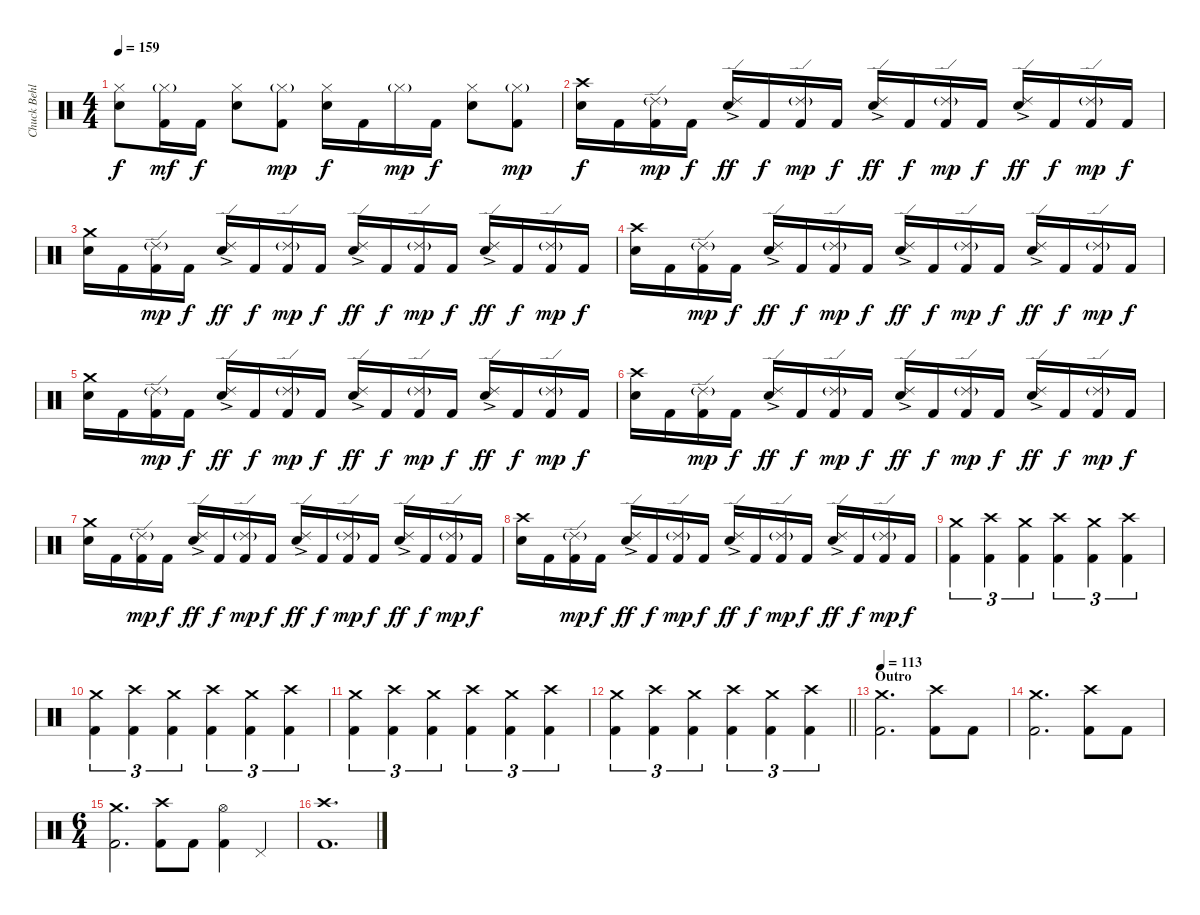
\track ("Chuck Behler" "Chuck Behl") {instrument percussion}
\staff {score}
\articulation defaults
\ts (4 4)
\tempo 159
\clef neutral
\ks c
("Hi-Hat (closed)" "Snare (hit) 2").8{dy f} ("Hi-Hat (closed)"{g} "Kick (hit) 2").16{dy mf} "Kick (hit) 2".16{dy f} ("Hi-Hat (closed)" "Snare (hit) 2").8 ("Hi-Hat (closed)"{g} "Kick (hit) 2").8{dy mp} ("Hi-Hat (closed)" "Snare (hit) 2").16{dy f} "Kick (hit) 2".16 "Hi-Hat (closed)"{g}.16{dy mp} "Kick (hit) 2".16{dy f} ("Hi-Hat (closed)" "Snare (hit) 2").8 ("Hi-Hat (closed)"{g} "Kick (hit) 2").8{dy mp} |
("Crash high (hit)" "Snare (hit) 2").16{dy f} "Kick (hit) 2".16 ("Ride (edge) 2"{g} "Kick (hit) 2").16{dy mp} "Kick (hit) 2".16{dy f} ("Ride (edge) 2"{ac} "Snare (hit) 2").16{dy ff} "Kick (hit) 2".16{dy f} ("Ride (edge) 2"{g} "Kick (hit) 2").16{dy mp} "Kick (hit) 2".16{dy f} ("Ride (edge) 2"{ac} "Snare (hit) 2").16{dy ff} "Kick (hit) 2".16{dy f} ("Ride (edge) 2"{g} "Kick (hit) 2").16{dy mp} "Kick (hit) 2".16{dy f} ("Ride (edge) 2"{ac} "Snare (hit) 2").16{dy ff} "Kick (hit) 2".16{dy f} ("Ride (edge) 2"{g} "Kick (hit) 2").16{dy mp} "Kick (hit) 2".16{dy f} |
("Crash medium (hit)" "Snare (hit) 2").16 "Kick (hit) 2".16 ("Ride (edge) 2"{g} "Kick (hit) 2").16{dy mp} "Kick (hit) 2".16{dy f} ("Ride (edge) 2"{ac} "Snare (hit) 2").16{dy ff} "Kick (hit) 2".16{dy f} ("Ride (edge) 2"{g} "Kick (hit) 2").16{dy mp} "Kick (hit) 2".16{dy f} ("Ride (edge) 2"{ac} "Snare (hit) 2").16{dy ff} "Kick (hit) 2".16{dy f} ("Ride (edge) 2"{g} "Kick (hit) 2").16{dy mp} "Kick (hit) 2".16{dy f} ("Ride (edge) 2"{ac} "Snare (hit) 2").16{dy ff} "Kick (hit) 2".16{dy f} ("Ride (edge) 2"{g} "Kick (hit) 2").16{dy mp} "Kick (hit) 2".16{dy f} |
("Crash high (hit)" "Snare (hit) 2").16 "Kick (hit) 2".16 ("Ride (edge) 2"{g} "Kick (hit) 2").16{dy mp} "Kick (hit) 2".16{dy f} ("Ride (edge) 2"{ac} "Snare (hit) 2").16{dy ff} "Kick (hit) 2".16{dy f} ("Ride (edge) 2"{g} "Kick (hit) 2").16{dy mp} "Kick (hit) 2".16{dy f} ("Ride (edge) 2"{ac} "Snare (hit) 2").16{dy ff} "Kick (hit) 2".16{dy f} ("Ride (edge) 2"{g} "Kick (hit) 2").16{dy mp} "Kick (hit) 2".16{dy f} ("Ride (edge) 2"{ac} "Snare (hit) 2").16{dy ff} "Kick (hit) 2".16{dy f} ("Ride (edge) 2"{g} "Kick (hit) 2").16{dy mp} "Kick (hit) 2".16{dy f} |
("Crash medium (hit)" "Snare (hit) 2").16 "Kick (hit) 2".16 ("Ride (edge) 2"{g} "Kick (hit) 2").16{dy mp} "Kick (hit) 2".16{dy f} ("Ride (edge) 2"{ac} "Snare (hit) 2").16{dy ff} "Kick (hit) 2".16{dy f} ("Ride (edge) 2"{g} "Kick (hit) 2").16{dy mp} "Kick (hit) 2".16{dy f} ("Ride (edge) 2"{ac} "Snare (hit) 2").16{dy ff} "Kick (hit) 2".16{dy f} ("Ride (edge) 2"{g} "Kick (hit) 2").16{dy mp} "Kick (hit) 2".16{dy f} ("Ride (edge) 2"{ac} "Snare (hit) 2").16{dy ff} "Kick (hit) 2".16{dy f} ("Ride (edge) 2"{g} "Kick (hit) 2").16{dy mp} "Kick (hit) 2".16{dy f} |
("Crash high (hit)" "Snare (hit) 2").16 "Kick (hit) 2".16 ("Ride (edge) 2"{g} "Kick (hit) 2").16{dy mp} "Kick (hit) 2".16{dy f} ("Ride (edge) 2"{ac} "Snare (hit) 2").16{dy ff} "Kick (hit) 2".16{dy f} ("Ride (edge) 2"{g} "Kick (hit) 2").16{dy mp} "Kick (hit) 2".16{dy f} ("Ride (edge) 2"{ac} "Snare (hit) 2").16{dy ff} "Kick (hit) 2".16{dy f} ("Ride (edge) 2"{g} "Kick (hit) 2").16{dy mp} "Kick (hit) 2".16{dy f} ("Ride (edge) 2"{ac} "Snare (hit) 2").16{dy ff} "Kick (hit) 2".16{dy f} ("Ride (edge) 2"{g} "Kick (hit) 2").16{dy mp} "Kick (hit) 2".16{dy f} |
("Crash medium (hit)" "Snare (hit) 2").16 "Kick (hit) 2".16 ("Ride (edge) 2"{g} "Kick (hit) 2").16{dy mp} "Kick (hit) 2".16{dy f} ("Ride (edge) 2"{ac} "Snare (hit) 2").16{dy ff} "Kick (hit) 2".16{dy f} ("Ride (edge) 2"{g} "Kick (hit) 2").16{dy mp} "Kick (hit) 2".16{dy f} ("Ride (edge) 2"{ac} "Snare (hit) 2").16{dy ff} "Kick (hit) 2".16{dy f} ("Ride (edge) 2"{g} "Kick (hit) 2").16{dy mp} "Kick (hit) 2".16{dy f} ("Ride (edge) 2"{ac} "Snare (hit) 2").16{dy ff} "Kick (hit) 2".16{dy f} ("Ride (edge) 2"{g} "Kick (hit) 2").16{dy mp} "Kick (hit) 2".16{dy f} |
("Crash high (hit)" "Snare (hit) 2").16 "Kick (hit) 2".16 ("Ride (edge) 2"{g} "Kick (hit) 2").16{dy mp} "Kick (hit) 2".16{dy f} ("Ride (edge) 2"{ac} "Snare (hit) 2").16{dy ff} "Kick (hit) 2".16{dy f} ("Ride (edge) 2"{g} "Kick (hit) 2").16{dy mp} "Kick (hit) 2".16{dy f} ("Ride (edge) 2"{ac} "Snare (hit) 2").16{dy ff} "Kick (hit) 2".16{dy f} ("Ride (edge) 2"{g} "Kick (hit) 2").16{dy mp} "Kick (hit) 2".16{dy f} ("Ride (edge) 2"{ac} "Snare (hit) 2").16{dy ff} "Kick (hit) 2".16{dy f} ("Ride (edge) 2"{g} "Kick (hit) 2").16{dy mp} "Kick (hit) 2".16{dy f} |
("Crash medium (hit)" "Kick (hit) 2").4{tu (3 2)} ("Crash high (hit)" "Kick (hit) 2").4{tu (3 2)} ("Crash medium (hit)" "Kick (hit) 2").4{tu (3 2)} ("Crash high (hit)" "Kick (hit) 2").4{tu (3 2)} ("Crash medium (hit)" "Kick (hit) 2").4{tu (3 2)} ("Crash high (hit)" "Kick (hit) 2").4{tu (3 2)} |
("Crash medium (hit)" "Kick (hit) 2").4{tu (3 2)} ("Crash high (hit)" "Kick (hit) 2").4{tu (3 2)} ("Crash medium (hit)" "Kick (hit) 2").4{tu (3 2)} ("Crash high (hit)" "Kick (hit) 2").4{tu (3 2)} ("Crash medium (hit)" "Kick (hit) 2").4{tu (3 2)} ("Crash high (hit)" "Kick (hit) 2").4{tu (3 2)} |
("Crash medium (hit)" "Kick (hit) 2").4{tu (3 2)} ("Crash high (hit)" "Kick (hit) 2").4{tu (3 2)} ("Crash medium (hit)" "Kick (hit) 2").4{tu (3 2)} ("Crash high (hit)" "Kick (hit) 2").4{tu (3 2)} ("Crash medium (hit)" "Kick (hit) 2").4{tu (3 2)} ("Crash high (hit)" "Kick (hit) 2").4{tu (3 2)} |
\barLineRight lightlight
("Crash medium (hit)" "Kick (hit) 2").4{tu (3 2)} ("Crash high (hit)" "Kick (hit) 2").4{tu (3 2)} ("Crash medium (hit)" "Kick (hit) 2").4{tu (3 2)} ("Crash high (hit)" "Kick (hit) 2").4{tu (3 2)} ("Crash medium (hit)" "Kick (hit) 2").4{tu (3 2)} ("Crash high (hit)" "Kick (hit) 2").4{tu (3 2)} |
\section ("" "Outro")
\tempo 113
("Crash medium (hit)" "Kick (hit) 2").2{d} ("Crash high (hit)" "Kick (hit) 2").8 "Kick (hit) 2".8 |
("Crash medium (hit)" "Kick (hit) 2").2{d} ("Crash high (hit)" "Kick (hit) 2").8 "Kick (hit) 2".8 |
\ts (6 4)
("Crash medium (hit)" "Kick (hit) 2").2{d} ("Crash high (hit)" "Kick (hit) 2").8 "Kick (hit) 2".8 ("Hi-Hat (open)" "Kick (hit) 2").4 "Pedal Hi-Hat (hit)".4 |
("Crash high (hit)" "Kick (hit) 2").1{d}
